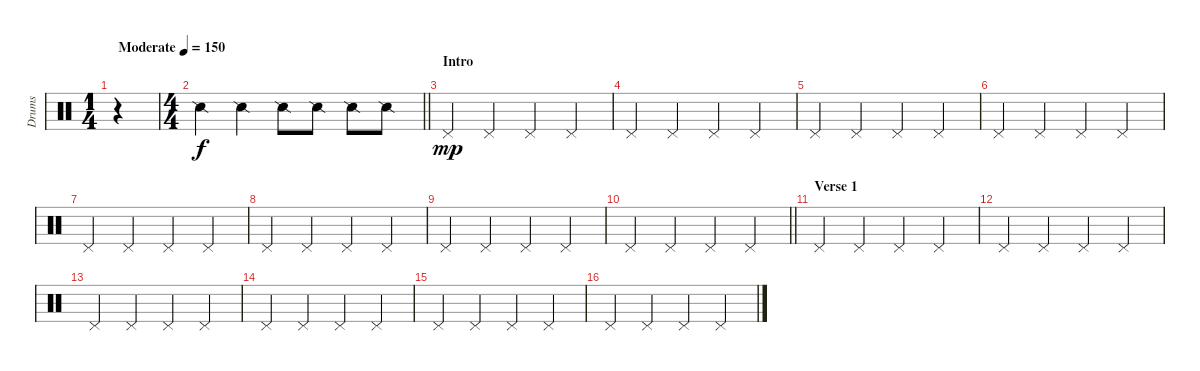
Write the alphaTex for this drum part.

\track ("Drums" "Drums") {instrument percussion}
\staff {score}
\articulation defaults
\voice
\ts (1 4)
\tempo (150 "Moderate")
\clef neutral
\ks c
r.4{dy f} |
\ts (4 4)
\barLineRight lightlight "Snare (side stick) 2".4 "Snare (side stick) 2".4 "Snare (side stick) 2".8 "Snare (side stick) 2".8 "Snare (side stick) 2".8 "Snare (side stick) 2".8
|
\section ("" "Intro")
"Pedal Hi-Hat (hit)".4{dy mp} "Pedal Hi-Hat (hit)".4 "Pedal Hi-Hat (hit)".4 "Pedal Hi-Hat (hit)".4 |
"Pedal Hi-Hat (hit)".4 "Pedal Hi-Hat (hit)".4 "Pedal Hi-Hat (hit)".4 "Pedal Hi-Hat (hit)".4 |
"Pedal Hi-Hat (hit)".4 "Pedal Hi-Hat (hit)".4 "Pedal Hi-Hat (hit)".4 "Pedal Hi-Hat (hit)".4 |
"Pedal Hi-Hat (hit)".4 "Pedal Hi-Hat (hit)".4 "Pedal Hi-Hat (hit)".4 "Pedal Hi-Hat (hit)".4 |
"Pedal Hi-Hat (hit)".4 "Pedal Hi-Hat (hit)".4 "Pedal Hi-Hat (hit)".4 "Pedal Hi-Hat (hit)".4 |
"Pedal Hi-Hat (hit)".4 "Pedal Hi-Hat (hit)".4 "Pedal Hi-Hat (hit)".4 "Pedal Hi-Hat (hit)".4 |
"Pedal Hi-Hat (hit)".4 "Pedal Hi-Hat (hit)".4 "Pedal Hi-Hat (hit)".4 "Pedal Hi-Hat (hit)".4 |
\barLineRight lightlight "Pedal Hi-Hat (hit)".4 "Pedal Hi-Hat (hit)".4 "Pedal Hi-Hat (hit)".4 "Pedal Hi-Hat (hit)".4
|
\section ("" "Verse 1")
"Pedal Hi-Hat (hit)".4 "Pedal Hi-Hat (hit)".4 "Pedal Hi-Hat (hit)".4 "Pedal Hi-Hat (hit)".4 |
"Pedal Hi-Hat (hit)".4 "Pedal Hi-Hat (hit)".4 "Pedal Hi-Hat (hit)".4 "Pedal Hi-Hat (hit)".4 |
"Pedal Hi-Hat (hit)".4 "Pedal Hi-Hat (hit)".4 "Pedal Hi-Hat (hit)".4 "Pedal Hi-Hat (hit)".4 |
"Pedal Hi-Hat (hit)".4 "Pedal Hi-Hat (hit)".4 "Pedal Hi-Hat (hit)".4 "Pedal Hi-Hat (hit)".4 |
"Pedal Hi-Hat (hit)".4 "Pedal Hi-Hat (hit)".4 "Pedal Hi-Hat (hit)".4 "Pedal Hi-Hat (hit)".4 |
"Pedal Hi-Hat (hit)".4 "Pedal Hi-Hat (hit)".4 "Pedal Hi-Hat (hit)".4 "Pedal Hi-Hat (hit)".4
\voice
\clef neutral
\ottava regular
\simile none
\ks c
r.4{dy f} |
\barLineRight lightlight
|
|
|
|
|
|
|
|
\barLineRight lightlight
|
|
|
|
|
|
